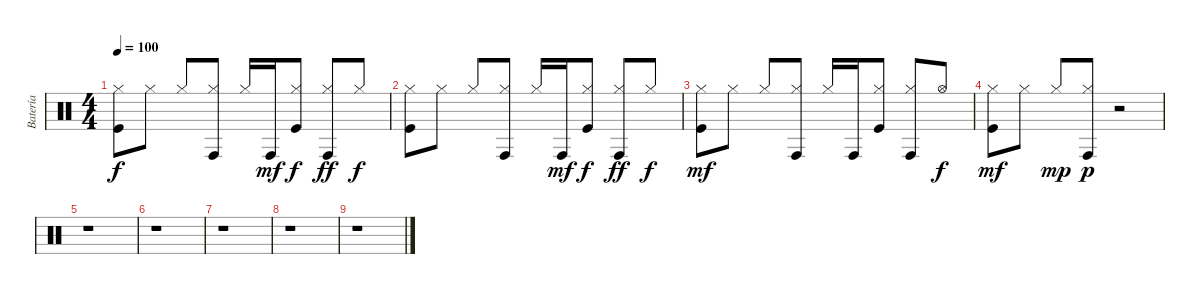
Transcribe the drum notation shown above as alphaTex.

\track ("Batería" "Batería") {instrument percussion}
\staff {score}
\articulation defaults
\ts (4 4)
\tempo 100
\clef neutral
\ks c
("Hi-Hat (closed)" "Kick (hit)").8{dy f} "Hi-Hat (closed)".8 "Hi-Hat (closed)".8 ("Hi-Hat (closed)" "Conga high (hit)").8 "Hi-Hat (closed)".16 "Conga high (hit)".16{dy mf} ("Hi-Hat (closed)" "Kick (hit)").8{dy f} ("Hi-Hat (closed)" "Conga high (hit)").8{dy ff} "Hi-Hat (closed)".8{dy f} |
("Hi-Hat (closed)" "Kick (hit)").8 "Hi-Hat (closed)".8 "Hi-Hat (closed)".8 ("Hi-Hat (closed)" "Conga high (hit)").8 "Hi-Hat (closed)".16 "Conga high (hit)".16{dy mf} ("Hi-Hat (closed)" "Kick (hit)").8{dy f} ("Hi-Hat (closed)" "Conga high (hit)").8{dy ff} "Hi-Hat (closed)".8{dy f} |
("Hi-Hat (closed)" "Kick (hit)").8{dy mf} "Hi-Hat (closed)".8 "Hi-Hat (closed)".8 ("Hi-Hat (closed)" "Conga high (hit)").8 "Hi-Hat (closed)".16 "Conga high (hit)".16 ("Hi-Hat (closed)" "Kick (hit)").8 ("Hi-Hat (closed)" "Conga high (hit)").8 "Hi-Hat (open)".8{dy f} |
("Hi-Hat (closed)" "Kick (hit)").8{dy mf} "Hi-Hat (closed)".8 "Hi-Hat (closed)".8{dy mp} ("Hi-Hat (closed)" "Conga high (hit)").8{dy p} r.2 |
r.1 |
r.1 |
r.1 |
r.1 |
r.1
